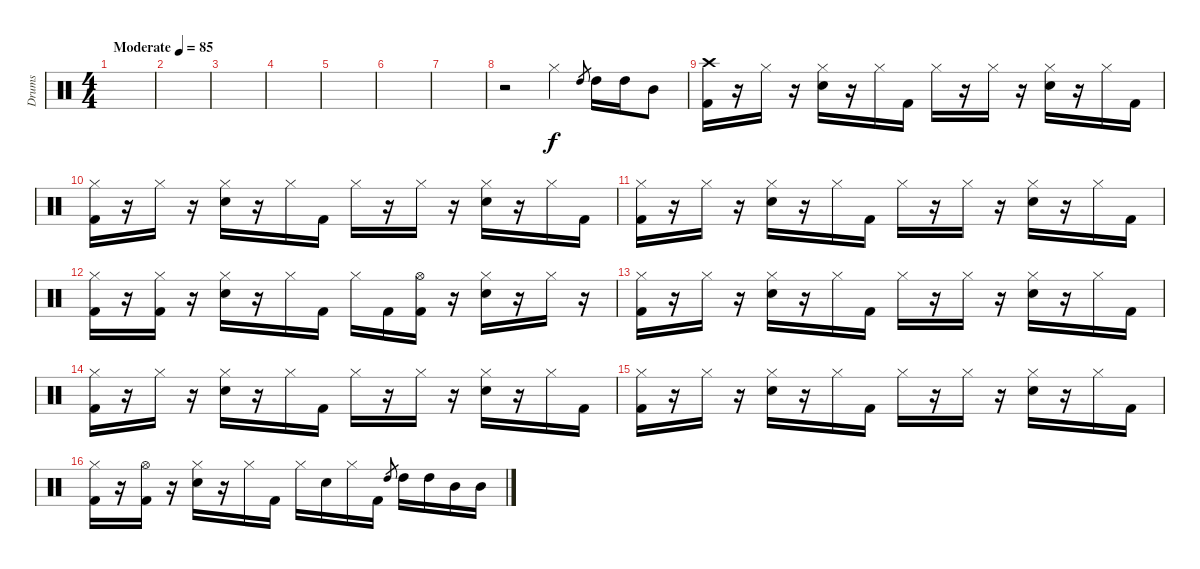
\track ("Drums" "Drums") {instrument percussion}
\staff {score}
\articulation defaults
\ts (4 4)
\tempo (85 "Moderate")
\clef neutral
\ks c
|
|
|
|
|
|
|
r.2 "Hi-Hat (closed)".4 "High Tom (hit)".8{gr} "High Tom (hit)".16 "High Tom (hit)".16 "Mid Tom (hit)".8 |
("Crash high (hit)" "Kick (hit) 2").16 r.16 "Hi-Hat (closed)".16 r.16 ("Hi-Hat (closed)" "Electric Snare (hit)").16 r.16 "Hi-Hat (closed)".16 "Kick (hit) 2".16 "Hi-Hat (closed)".16 r.16 "Hi-Hat (closed)".16 r.16 ("Hi-Hat (closed)" "Electric Snare (hit)").16 r.16 "Hi-Hat (closed)".16 "Kick (hit) 2".16 |
("Hi-Hat (closed)" "Kick (hit) 2").16 r.16 "Hi-Hat (closed)".16 r.16 ("Hi-Hat (closed)" "Electric Snare (hit)").16 r.16 "Hi-Hat (closed)".16 "Kick (hit) 2".16 "Hi-Hat (closed)".16 r.16 "Hi-Hat (closed)".16 r.16 ("Hi-Hat (closed)" "Electric Snare (hit)").16 r.16 "Hi-Hat (closed)".16 "Kick (hit) 2".16 |
("Hi-Hat (closed)" "Kick (hit) 2").16 r.16 "Hi-Hat (closed)".16 r.16 ("Hi-Hat (closed)" "Electric Snare (hit)").16 r.16 "Hi-Hat (closed)".16 "Kick (hit) 2".16 "Hi-Hat (closed)".16 r.16 "Hi-Hat (closed)".16 r.16 ("Hi-Hat (closed)" "Electric Snare (hit)").16 r.16 "Hi-Hat (closed)".16 "Kick (hit) 2".16 |
("Hi-Hat (closed)" "Kick (hit) 2").16 r.16 ("Hi-Hat (closed)" "Kick (hit) 2").16 r.16 ("Hi-Hat (closed)" "Electric Snare (hit)").16 r.16 "Hi-Hat (closed)".16 "Kick (hit) 2".16 "Hi-Hat (closed)".16 "Kick (hit) 2".16 ("Hi-Hat (open)" "Kick (hit) 2").16 r.16 ("Hi-Hat (closed)" "Electric Snare (hit)").16 r.16 "Hi-Hat (closed)".16 r.16 |
("Hi-Hat (closed)" "Kick (hit) 2").16 r.16 "Hi-Hat (closed)".16 r.16 ("Hi-Hat (closed)" "Electric Snare (hit)").16 r.16 "Hi-Hat (closed)".16 "Kick (hit) 2".16 "Hi-Hat (closed)".16 r.16 "Hi-Hat (closed)".16 r.16 ("Hi-Hat (closed)" "Electric Snare (hit)").16 r.16 "Hi-Hat (closed)".16 "Kick (hit) 2".16 |
("Hi-Hat (closed)" "Kick (hit) 2").16 r.16 "Hi-Hat (closed)".16 r.16 ("Hi-Hat (closed)" "Electric Snare (hit)").16 r.16 "Hi-Hat (closed)".16 "Kick (hit) 2".16 "Hi-Hat (closed)".16 r.16 "Hi-Hat (closed)".16 r.16 ("Hi-Hat (closed)" "Electric Snare (hit)").16 r.16 "Hi-Hat (closed)".16 "Kick (hit) 2".16 |
("Hi-Hat (closed)" "Kick (hit) 2").16 r.16 "Hi-Hat (closed)".16 r.16 ("Hi-Hat (closed)" "Electric Snare (hit)").16 r.16 "Hi-Hat (closed)".16 "Kick (hit) 2".16 "Hi-Hat (closed)".16 r.16 "Hi-Hat (closed)".16 r.16 ("Hi-Hat (closed)" "Electric Snare (hit)").16 r.16 "Hi-Hat (closed)".16 "Kick (hit) 2".16 |
("Hi-Hat (closed)" "Kick (hit) 2").16 r.16 ("Hi-Hat (open)" "Kick (hit) 2").16 r.16 ("Hi-Hat (closed)" "Electric Snare (hit)").16 r.16 "Hi-Hat (closed)".16 "Kick (hit) 2".16 "Hi-Hat (closed)".16 "Electric Snare (hit)".16 "Hi-Hat (closed)".16 "Kick (hit) 2".16 "High Tom (hit)".8{gr} "High Tom (hit)".16 "High Tom (hit)".16 "Mid Tom (hit)".16 "Mid Tom (hit)".16
